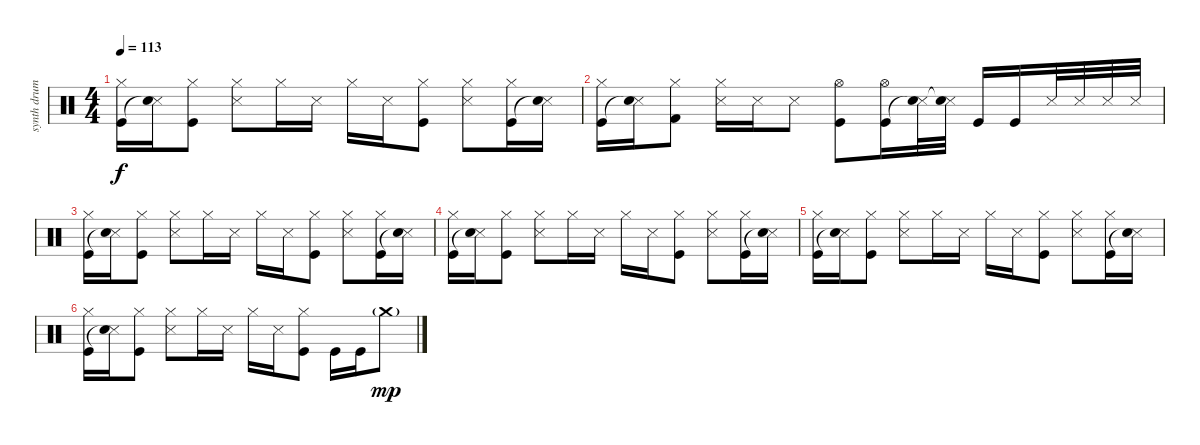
\track ("synth drums" "synth drum") {instrument percussion}
\staff {score}
\articulation defaults
\ts (4 4)
\tempo 113
\clef neutral
\ks c
("Hi-Hat (closed)" "Kick (hit)").16{dy f} ("Metronome (hit)" "Snare (hit)"{t}).16 ("Hi-Hat (closed)" "Kick (hit)").8 ("Hi-Hat (closed)" "Metronome (hit)").8 "Hi-Hat (closed)".16 "Metronome (hit)".16 "Hi-Hat (closed)".16 "Metronome (hit)".16 ("Hi-Hat (closed)" "Kick (hit)").8 ("Hi-Hat (closed)" "Metronome (hit)").8 ("Hi-Hat (closed)" "Kick (hit)").16 ("Metronome (hit)" "Snare (hit)"{t}).16 |
("Hi-Hat (closed)" "Kick (hit)").16 ("Metronome (hit)" "Snare (hit)"{t}).16 ("Hi-Hat (closed)" "Kick (hit) 2").8 ("Hi-Hat (closed)" "Metronome (hit)").16 "Metronome (hit)".16 "Metronome (hit)".8 ("Hi-Hat (open)" "Kick (hit)").8 ("Hi-Hat (open)" "Kick (hit)").16 ("Metronome (hit)" "Snare (hit)"{t}).32 ("Metronome (hit)" "Snare (hit)"{t}).32 "Kick (hit)".16 "Kick (hit)".16 "Metronome (hit)".32 "Metronome (hit)".32 "Metronome (hit)".32 "Metronome (hit)".32 |
("Hi-Hat (closed)" "Kick (hit)").16 ("Metronome (hit)" "Snare (hit)"{t}).16 ("Hi-Hat (closed)" "Kick (hit)").8 ("Hi-Hat (closed)" "Metronome (hit)").8 "Hi-Hat (closed)".16 "Metronome (hit)".16 "Hi-Hat (closed)".16 "Metronome (hit)".16 ("Hi-Hat (closed)" "Kick (hit)").8 ("Hi-Hat (closed)" "Metronome (hit)").8 ("Hi-Hat (closed)" "Kick (hit)").16 ("Metronome (hit)" "Snare (hit)"{t}).16 |
("Hi-Hat (closed)" "Kick (hit)").16 ("Metronome (hit)" "Snare (hit)"{t}).16 ("Hi-Hat (closed)" "Kick (hit)").8 ("Hi-Hat (closed)" "Metronome (hit)").8 "Hi-Hat (closed)".16 "Metronome (hit)".16 "Hi-Hat (closed)".16 "Metronome (hit)".16 ("Hi-Hat (closed)" "Kick (hit)").8 ("Hi-Hat (closed)" "Metronome (hit)").8 ("Hi-Hat (closed)" "Kick (hit)").16 ("Metronome (hit)" "Snare (hit)"{t}).16 |
("Hi-Hat (closed)" "Kick (hit)").16 ("Metronome (hit)" "Snare (hit)"{t}).16 ("Hi-Hat (closed)" "Kick (hit)").8 ("Hi-Hat (closed)" "Metronome (hit)").8 "Hi-Hat (closed)".16 "Metronome (hit)".16 "Hi-Hat (closed)".16 "Metronome (hit)".16 ("Hi-Hat (closed)" "Kick (hit)").8 ("Hi-Hat (closed)" "Metronome (hit)").8 ("Hi-Hat (closed)" "Kick (hit)").16 ("Metronome (hit)" "Snare (hit)"{t}).16 |
("Hi-Hat (closed)" "Kick (hit)").16 ("Metronome (hit)" "Snare (hit)"{t}).16 ("Hi-Hat (closed)" "Kick (hit)").8 ("Hi-Hat (closed)" "Metronome (hit)").8 "Hi-Hat (closed)".16 "Metronome (hit)".16 "Hi-Hat (closed)".16 "Metronome (hit)".16 ("Hi-Hat (closed)" "Kick (hit)").8 "Kick (hit)".16 "Kick (hit)".16 "Crash medium (hit)"{g}.8{dy mp}
